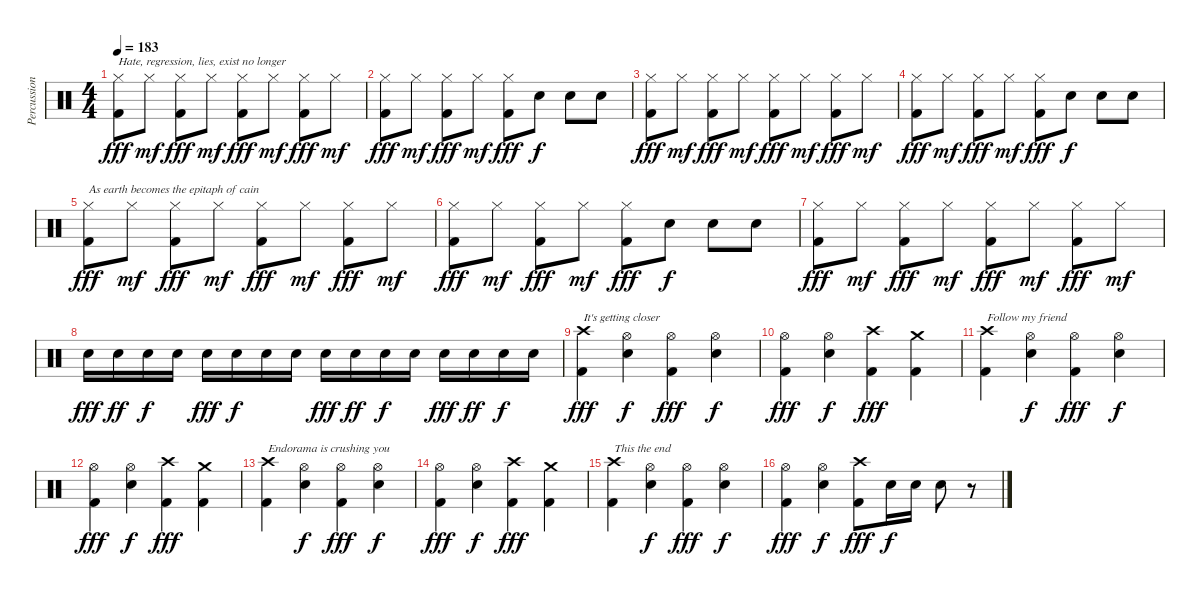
\track ("Percussion" "Percussion") {instrument percussion}
\staff {score}
\articulation defaults
\ts (4 4)
\tempo 183
\clef neutral
\ks c
("Hi-Hat (closed)" "Kick (hit) 2").8{txt "Hate, regression, lies, exist no longer" dy fff} "Hi-Hat (closed)".8{dy mf} ("Hi-Hat (closed)" "Kick (hit) 2").8{dy fff} "Hi-Hat (closed)".8{dy mf} ("Hi-Hat (closed)" "Kick (hit) 2").8{dy fff} "Hi-Hat (closed)".8{dy mf} ("Hi-Hat (closed)" "Kick (hit) 2").8{dy fff} "Hi-Hat (closed)".8{dy mf} |
("Hi-Hat (closed)" "Kick (hit) 2").8{dy fff} "Hi-Hat (closed)".8{dy mf} ("Hi-Hat (closed)" "Kick (hit) 2").8{dy fff} "Hi-Hat (closed)".8{dy mf} ("Hi-Hat (closed)" "Kick (hit) 2").8{dy fff} "Snare (hit) 2".8{dy f} "Snare (hit) 2".8 "Snare (hit) 2".8 |
("Hi-Hat (closed)" "Kick (hit) 2").8{dy fff} "Hi-Hat (closed)".8{dy mf} ("Hi-Hat (closed)" "Kick (hit) 2").8{dy fff} "Hi-Hat (closed)".8{dy mf} ("Hi-Hat (closed)" "Kick (hit) 2").8{dy fff} "Hi-Hat (closed)".8{dy mf} ("Hi-Hat (closed)" "Kick (hit) 2").8{dy fff} "Hi-Hat (closed)".8{dy mf} |
("Hi-Hat (closed)" "Kick (hit) 2").8{dy fff} "Hi-Hat (closed)".8{dy mf} ("Hi-Hat (closed)" "Kick (hit) 2").8{dy fff} "Hi-Hat (closed)".8{dy mf} ("Hi-Hat (closed)" "Kick (hit) 2").8{dy fff} "Snare (hit) 2".8{dy f} "Snare (hit) 2".8 "Snare (hit) 2".8 |
("Hi-Hat (closed)" "Kick (hit) 2").8{txt "As earth becomes the epitaph of cain" dy fff} "Hi-Hat (closed)".8{dy mf} ("Hi-Hat (closed)" "Kick (hit) 2").8{dy fff} "Hi-Hat (closed)".8{dy mf} ("Hi-Hat (closed)" "Kick (hit) 2").8{dy fff} "Hi-Hat (closed)".8{dy mf} ("Hi-Hat (closed)" "Kick (hit) 2").8{dy fff} "Hi-Hat (closed)".8{dy mf} |
("Hi-Hat (closed)" "Kick (hit) 2").8{dy fff} "Hi-Hat (closed)".8{dy mf} ("Hi-Hat (closed)" "Kick (hit) 2").8{dy fff} "Hi-Hat (closed)".8{dy mf} ("Hi-Hat (closed)" "Kick (hit) 2").8{dy fff} "Snare (hit) 2".8{dy f} "Snare (hit) 2".8 "Snare (hit) 2".8 |
("Hi-Hat (closed)" "Kick (hit) 2").8{dy fff} "Hi-Hat (closed)".8{dy mf} ("Hi-Hat (closed)" "Kick (hit) 2").8{dy fff} "Hi-Hat (closed)".8{dy mf} ("Hi-Hat (closed)" "Kick (hit) 2").8{dy fff} "Hi-Hat (closed)".8{dy mf} ("Hi-Hat (closed)" "Kick (hit) 2").8{dy fff} "Hi-Hat (closed)".8{dy mf} |
"Snare (hit) 2".16{dy fff} "Snare (hit) 2".16{dy ff} "Snare (hit) 2".16{dy f} "Snare (hit) 2".16 "Snare (hit) 2".16{dy fff} "Snare (hit) 2".16{dy f} "Snare (hit) 2".16 "Snare (hit) 2".16 "Snare (hit) 2".16{dy fff} "Snare (hit) 2".16{dy ff} "Snare (hit) 2".16{dy f} "Snare (hit) 2".16 "Snare (hit) 2".16{dy fff} "Snare (hit) 2".16{dy ff} "Snare (hit) 2".16{dy f} "Snare (hit) 2".16 |
("Crash high (hit)" "Kick (hit) 2").4{txt "It's getting closer" dy fff} ("Hi-Hat (open)" "Snare (hit) 2").4{dy f} ("Hi-Hat (open)" "Kick (hit) 2").4{dy fff} ("Hi-Hat (open)" "Snare (hit) 2").4{dy f} |
("Hi-Hat (open)" "Kick (hit) 2").4{dy fff} ("Hi-Hat (open)" "Snare (hit) 2").4{dy f} ("Crash high (hit)" "Kick (hit) 2").4{dy fff} ("Crash medium (hit)" "Kick (hit) 2").4 |
("Crash high (hit)" "Kick (hit) 2").4{txt "Follow my friend"} ("Hi-Hat (open)" "Snare (hit) 2").4{dy f} ("Hi-Hat (open)" "Kick (hit) 2").4{dy fff} ("Hi-Hat (open)" "Snare (hit) 2").4{dy f} |
("Hi-Hat (open)" "Kick (hit) 2").4{dy fff} ("Hi-Hat (open)" "Snare (hit) 2").4{dy f} ("Crash high (hit)" "Kick (hit) 2").4{dy fff} ("Crash medium (hit)" "Kick (hit) 2").4 |
("Crash high (hit)" "Kick (hit) 2").4{txt "Endorama is crushing you"} ("Hi-Hat (open)" "Snare (hit) 2").4{dy f} ("Hi-Hat (open)" "Kick (hit) 2").4{dy fff} ("Hi-Hat (open)" "Snare (hit) 2").4{dy f} |
("Hi-Hat (open)" "Kick (hit) 2").4{dy fff} ("Hi-Hat (open)" "Snare (hit) 2").4{dy f} ("Crash high (hit)" "Kick (hit) 2").4{dy fff} ("Crash medium (hit)" "Kick (hit) 2").4 |
("Crash high (hit)" "Kick (hit) 2").4{txt "This the end"} ("Hi-Hat (open)" "Snare (hit) 2").4{dy f} ("Hi-Hat (open)" "Kick (hit) 2").4{dy fff} ("Hi-Hat (open)" "Snare (hit) 2").4{dy f} |
("Hi-Hat (open)" "Kick (hit) 2").4{dy fff} ("Hi-Hat (open)" "Snare (hit) 2").4{dy f} ("Crash high (hit)" "Kick (hit) 2").8{dy fff} "Snare (hit) 2".16{dy f} "Snare (hit) 2".16 "Snare (hit) 2".8 r.8
